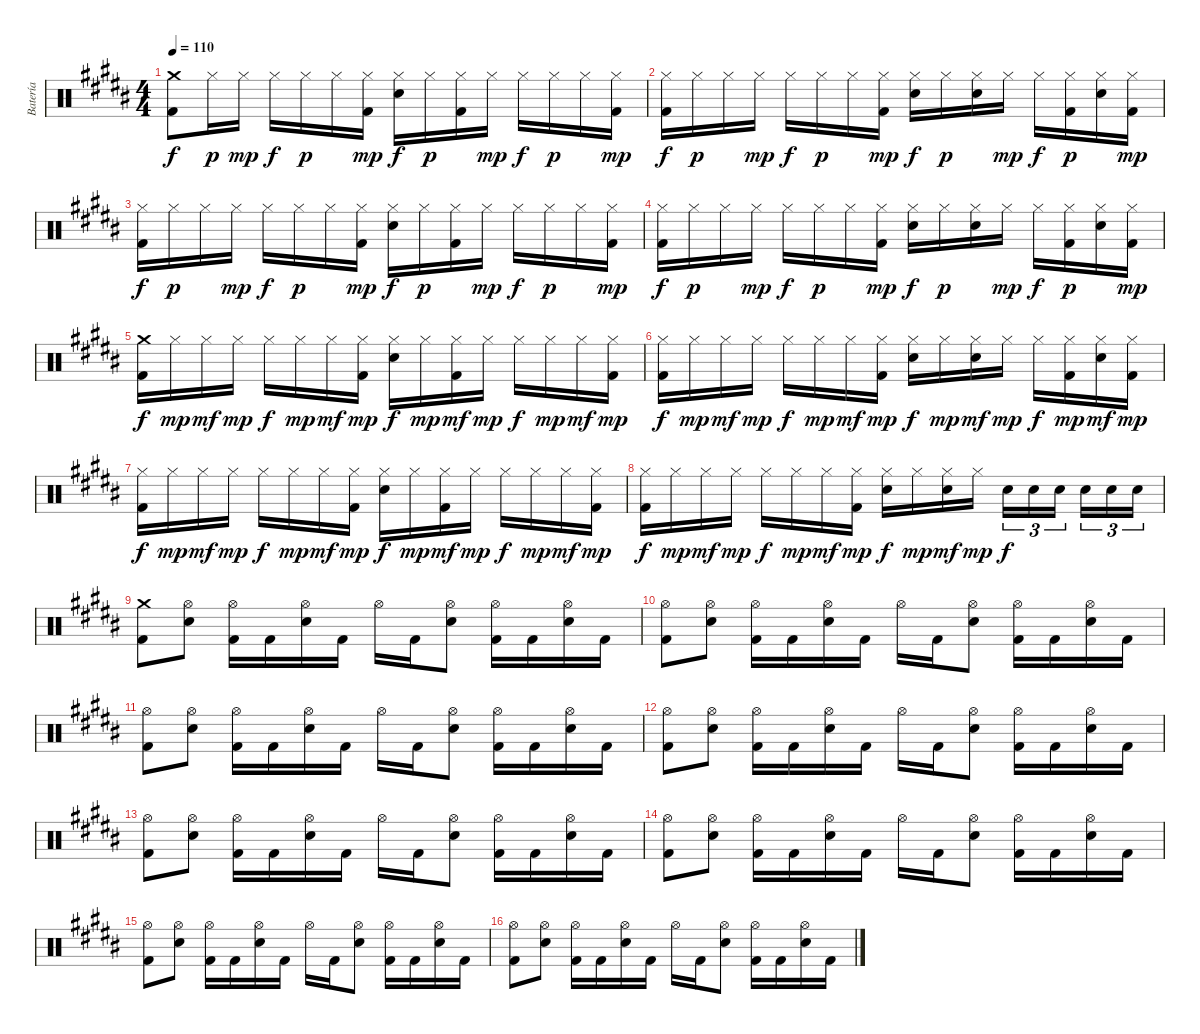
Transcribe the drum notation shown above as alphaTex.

\track ("Batería" "Batería") {instrument percussion}
\staff {score}
\articulation defaults
\ts (4 4)
\tempo 110
\clef neutral
\ks b
("Crash medium (hit)" "Kick (hit) 2").8{dy f} "Hi-Hat (closed)".16{dy p} "Hi-Hat (closed)".16{dy mp} "Hi-Hat (closed)".16{dy f} "Hi-Hat (closed)".16{dy p} "Hi-Hat (closed)".16 ("Hi-Hat (closed)" "Kick (hit) 2").16{dy mp} ("Hi-Hat (closed)" "Electric Snare (hit)").16{dy f} "Hi-Hat (closed)".16{dy p} ("Hi-Hat (closed)" "Kick (hit) 2").16 "Hi-Hat (closed)".16{dy mp} "Hi-Hat (closed)".16{dy f} "Hi-Hat (closed)".16{dy p} "Hi-Hat (closed)".16 ("Hi-Hat (closed)" "Kick (hit) 2").16{dy mp} |
("Hi-Hat (closed)" "Kick (hit) 2").16{dy f} "Hi-Hat (closed)".16{dy p} "Hi-Hat (closed)".16 "Hi-Hat (closed)".16{dy mp} "Hi-Hat (closed)".16{dy f} "Hi-Hat (closed)".16{dy p} "Hi-Hat (closed)".16 ("Hi-Hat (closed)" "Kick (hit) 2").16{dy mp} ("Hi-Hat (closed)" "Electric Snare (hit)").16{dy f} "Hi-Hat (closed)".16{dy p} ("Hi-Hat (closed)" "Electric Snare (hit)").16 "Hi-Hat (closed)".16{dy mp} "Hi-Hat (closed)".16{dy f} ("Hi-Hat (closed)" "Kick (hit) 2").16{dy p} ("Hi-Hat (closed)" "Electric Snare (hit)").16 ("Hi-Hat (closed)" "Kick (hit) 2").16{dy mp} |
("Hi-Hat (closed)" "Kick (hit) 2").16{dy f} "Hi-Hat (closed)".16{dy p} "Hi-Hat (closed)".16 "Hi-Hat (closed)".16{dy mp} "Hi-Hat (closed)".16{dy f} "Hi-Hat (closed)".16{dy p} "Hi-Hat (closed)".16 ("Hi-Hat (closed)" "Kick (hit) 2").16{dy mp} ("Hi-Hat (closed)" "Electric Snare (hit)").16{dy f} "Hi-Hat (closed)".16{dy p} ("Hi-Hat (closed)" "Kick (hit) 2").16 "Hi-Hat (closed)".16{dy mp} "Hi-Hat (closed)".16{dy f} "Hi-Hat (closed)".16{dy p} "Hi-Hat (closed)".16 ("Hi-Hat (closed)" "Kick (hit) 2").16{dy mp} |
("Hi-Hat (closed)" "Kick (hit) 2").16{dy f} "Hi-Hat (closed)".16{dy p} "Hi-Hat (closed)".16 "Hi-Hat (closed)".16{dy mp} "Hi-Hat (closed)".16{dy f} "Hi-Hat (closed)".16{dy p} "Hi-Hat (closed)".16 ("Hi-Hat (closed)" "Kick (hit) 2").16{dy mp} ("Hi-Hat (closed)" "Electric Snare (hit)").16{dy f} "Hi-Hat (closed)".16{dy p} ("Hi-Hat (closed)" "Electric Snare (hit)").16 "Hi-Hat (closed)".16{dy mp} "Hi-Hat (closed)".16{dy f} ("Hi-Hat (closed)" "Kick (hit) 2").16{dy p} ("Hi-Hat (closed)" "Electric Snare (hit)").16 ("Hi-Hat (closed)" "Kick (hit) 2").16{dy mp} |
("Crash medium (hit)" "Kick (hit) 2").16{dy f} "Hi-Hat (closed)".16{dy mp} "Hi-Hat (closed)".16{dy mf} "Hi-Hat (closed)".16{dy mp} "Hi-Hat (closed)".16{dy f} "Hi-Hat (closed)".16{dy mp} "Hi-Hat (closed)".16{dy mf} ("Hi-Hat (closed)" "Kick (hit) 2").16{dy mp} ("Hi-Hat (closed)" "Electric Snare (hit)").16{dy f} "Hi-Hat (closed)".16{dy mp} ("Hi-Hat (closed)" "Kick (hit) 2").16{dy mf} "Hi-Hat (closed)".16{dy mp} "Hi-Hat (closed)".16{dy f} "Hi-Hat (closed)".16{dy mp} "Hi-Hat (closed)".16{dy mf} ("Hi-Hat (closed)" "Kick (hit) 2").16{dy mp} |
("Hi-Hat (closed)" "Kick (hit) 2").16{dy f} "Hi-Hat (closed)".16{dy mp} "Hi-Hat (closed)".16{dy mf} "Hi-Hat (closed)".16{dy mp} "Hi-Hat (closed)".16{dy f} "Hi-Hat (closed)".16{dy mp} "Hi-Hat (closed)".16{dy mf} ("Hi-Hat (closed)" "Kick (hit) 2").16{dy mp} ("Hi-Hat (closed)" "Electric Snare (hit)").16{dy f} "Hi-Hat (closed)".16{dy mp} ("Hi-Hat (closed)" "Electric Snare (hit)").16{dy mf} "Hi-Hat (closed)".16{dy mp} "Hi-Hat (closed)".16{dy f} ("Hi-Hat (closed)" "Kick (hit) 2").16{dy mp} ("Hi-Hat (closed)" "Electric Snare (hit)").16{dy mf} ("Hi-Hat (closed)" "Kick (hit) 2").16{dy mp} |
("Hi-Hat (closed)" "Kick (hit) 2").16{dy f} "Hi-Hat (closed)".16{dy mp} "Hi-Hat (closed)".16{dy mf} "Hi-Hat (closed)".16{dy mp} "Hi-Hat (closed)".16{dy f} "Hi-Hat (closed)".16{dy mp} "Hi-Hat (closed)".16{dy mf} ("Hi-Hat (closed)" "Kick (hit) 2").16{dy mp} ("Hi-Hat (closed)" "Electric Snare (hit)").16{dy f} "Hi-Hat (closed)".16{dy mp} ("Hi-Hat (closed)" "Kick (hit) 2").16{dy mf} "Hi-Hat (closed)".16{dy mp} "Hi-Hat (closed)".16{dy f} "Hi-Hat (closed)".16{dy mp} "Hi-Hat (closed)".16{dy mf} ("Hi-Hat (closed)" "Kick (hit) 2").16{dy mp} |
("Hi-Hat (closed)" "Kick (hit) 2").16{dy f} "Hi-Hat (closed)".16{dy mp} "Hi-Hat (closed)".16{dy mf} "Hi-Hat (closed)".16{dy mp} "Hi-Hat (closed)".16{dy f} "Hi-Hat (closed)".16{dy mp} "Hi-Hat (closed)".16{dy mf} ("Hi-Hat (closed)" "Kick (hit) 2").16{dy mp} ("Hi-Hat (closed)" "Electric Snare (hit)").16{dy f} "Hi-Hat (closed)".16{dy mp} ("Hi-Hat (closed)" "Electric Snare (hit)").16{dy mf} "Hi-Hat (closed)".16{dy mp} "Electric Snare (hit)".16{tu (3 2) dy f} "Electric Snare (hit)".16{tu (3 2)} "Electric Snare (hit)".16{tu (3 2) beam splitsecondary} "Electric Snare (hit)".16{tu (3 2)} "Electric Snare (hit)".16{tu (3 2)} "Electric Snare (hit)".16{tu (3 2)} |
("Crash medium (hit)" "Kick (hit) 2").8 ("Hi-Hat (open)" "Electric Snare (hit)").8 ("Hi-Hat (open)" "Kick (hit) 2").16 "Kick (hit) 2".16 ("Hi-Hat (open)" "Electric Snare (hit)").16 "Kick (hit) 2".16 "Hi-Hat (open)".16 "Kick (hit) 2".16 ("Hi-Hat (open)" "Electric Snare (hit)").8 ("Hi-Hat (open)" "Kick (hit) 2").16 "Kick (hit) 2".16 ("Hi-Hat (open)" "Electric Snare (hit)").16 "Kick (hit) 2".16 |
("Hi-Hat (open)" "Kick (hit) 2").8 ("Hi-Hat (open)" "Electric Snare (hit)").8 ("Hi-Hat (open)" "Kick (hit) 2").16 "Kick (hit) 2".16 ("Hi-Hat (open)" "Electric Snare (hit)").16 "Kick (hit) 2".16 "Hi-Hat (open)".16 "Kick (hit) 2".16 ("Hi-Hat (open)" "Electric Snare (hit)").8 ("Hi-Hat (open)" "Kick (hit) 2").16 "Kick (hit) 2".16 ("Hi-Hat (open)" "Electric Snare (hit)").16 "Kick (hit) 2".16 |
("Hi-Hat (open)" "Kick (hit) 2").8 ("Hi-Hat (open)" "Electric Snare (hit)").8 ("Hi-Hat (open)" "Kick (hit) 2").16 "Kick (hit) 2".16 ("Hi-Hat (open)" "Electric Snare (hit)").16 "Kick (hit) 2".16 "Hi-Hat (open)".16 "Kick (hit) 2".16 ("Hi-Hat (open)" "Electric Snare (hit)").8 ("Hi-Hat (open)" "Kick (hit) 2").16 "Kick (hit) 2".16 ("Hi-Hat (open)" "Electric Snare (hit)").16 "Kick (hit) 2".16 |
("Hi-Hat (open)" "Kick (hit) 2").8 ("Hi-Hat (open)" "Electric Snare (hit)").8 ("Hi-Hat (open)" "Kick (hit) 2").16 "Kick (hit) 2".16 ("Hi-Hat (open)" "Electric Snare (hit)").16 "Kick (hit) 2".16 "Hi-Hat (open)".16 "Kick (hit) 2".16 ("Hi-Hat (open)" "Electric Snare (hit)").8 ("Hi-Hat (open)" "Kick (hit) 2").16 "Kick (hit) 2".16 ("Hi-Hat (open)" "Electric Snare (hit)").16 "Kick (hit) 2".16 |
("Hi-Hat (open)" "Kick (hit) 2").8 ("Hi-Hat (open)" "Electric Snare (hit)").8 ("Hi-Hat (open)" "Kick (hit) 2").16 "Kick (hit) 2".16 ("Hi-Hat (open)" "Electric Snare (hit)").16 "Kick (hit) 2".16 "Hi-Hat (open)".16 "Kick (hit) 2".16 ("Hi-Hat (open)" "Electric Snare (hit)").8 ("Hi-Hat (open)" "Kick (hit) 2").16 "Kick (hit) 2".16 ("Hi-Hat (open)" "Electric Snare (hit)").16 "Kick (hit) 2".16 |
("Hi-Hat (open)" "Kick (hit) 2").8 ("Hi-Hat (open)" "Electric Snare (hit)").8 ("Hi-Hat (open)" "Kick (hit) 2").16 "Kick (hit) 2".16 ("Hi-Hat (open)" "Electric Snare (hit)").16 "Kick (hit) 2".16 "Hi-Hat (open)".16 "Kick (hit) 2".16 ("Hi-Hat (open)" "Electric Snare (hit)").8 ("Hi-Hat (open)" "Kick (hit) 2").16 "Kick (hit) 2".16 ("Hi-Hat (open)" "Electric Snare (hit)").16 "Kick (hit) 2".16 |
("Hi-Hat (open)" "Kick (hit) 2").8 ("Hi-Hat (open)" "Electric Snare (hit)").8 ("Hi-Hat (open)" "Kick (hit) 2").16 "Kick (hit) 2".16 ("Hi-Hat (open)" "Electric Snare (hit)").16 "Kick (hit) 2".16 "Hi-Hat (open)".16 "Kick (hit) 2".16 ("Hi-Hat (open)" "Electric Snare (hit)").8 ("Hi-Hat (open)" "Kick (hit) 2").16 "Kick (hit) 2".16 ("Hi-Hat (open)" "Electric Snare (hit)").16 "Kick (hit) 2".16 |
("Hi-Hat (open)" "Kick (hit) 2").8 ("Hi-Hat (open)" "Electric Snare (hit)").8 ("Hi-Hat (open)" "Kick (hit) 2").16 "Kick (hit) 2".16 ("Hi-Hat (open)" "Electric Snare (hit)").16 "Kick (hit) 2".16 "Hi-Hat (open)".16 "Kick (hit) 2".16 ("Hi-Hat (open)" "Electric Snare (hit)").8 ("Hi-Hat (open)" "Kick (hit) 2").16 "Kick (hit) 2".16 ("Hi-Hat (open)" "Electric Snare (hit)").16 "Kick (hit) 2".16
